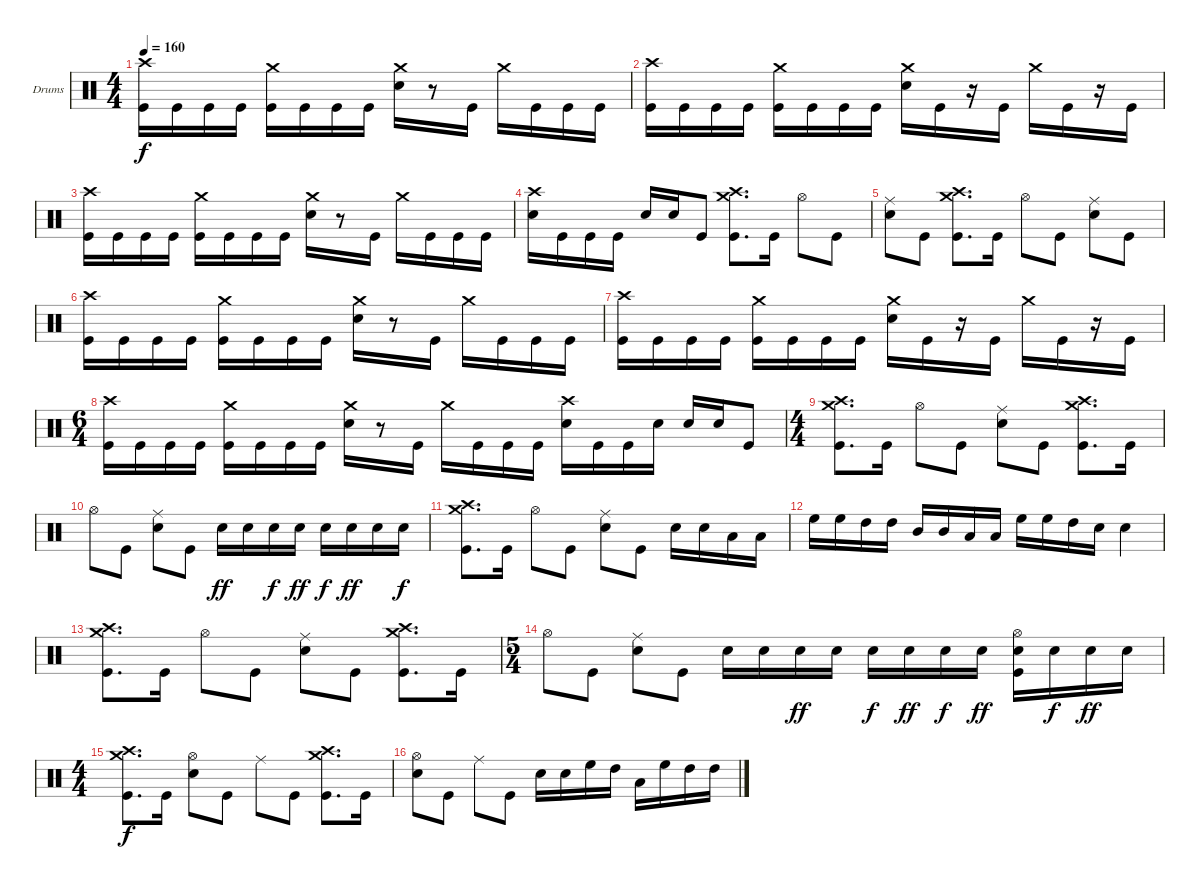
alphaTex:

\defaultSystemsLayout 4
\bracketExtendMode groupsimilarinstruments
\firstSystemTrackNameOrientation horizontal
\otherSystemsTrackNameOrientation horizontal
\track ("Moe Carlson" "Drums") {instrument percussion}
\staff {score}
\articulation defaults
\ts (4 4)
\tempo 160
\clef neutral
\ks c
("Crash high (hit)" "Kick (hit)").16{dy f} "Kick (hit)".16 "Kick (hit)".16 "Kick (hit)".16 ("Kick (hit)" "Crash medium (hit)").16 "Kick (hit)".16 "Kick (hit)".16 "Kick (hit)".16 ("Snare (hit) 2" "Crash medium (hit)").16 r.8 "Kick (hit)".16 "Crash medium (hit)".16 "Kick (hit)".16 "Kick (hit)".16 "Kick (hit)".16 |
("Kick (hit)" "Crash high (hit)").16 "Kick (hit)".16 "Kick (hit)".16 "Kick (hit)".16 ("Kick (hit)" "Crash medium (hit)").16 "Kick (hit)".16 "Kick (hit)".16 "Kick (hit)".16 ("Snare (hit) 2" "Crash medium (hit)").16 "Kick (hit)".16 r.16 "Kick (hit)".16 "Crash medium (hit)".16 "Kick (hit)".16 r.16 "Kick (hit)".16 |
("Crash high (hit)" "Kick (hit)").16 "Kick (hit)".16 "Kick (hit)".16 "Kick (hit)".16 ("Crash medium (hit)" "Kick (hit)").16 "Kick (hit)".16 "Kick (hit)".16 "Kick (hit)".16 ("Snare (hit) 2" "Crash medium (hit)").16 r.8 "Kick (hit)".16 "Crash medium (hit)".16 "Kick (hit)".16 "Kick (hit)".16 "Kick (hit)".16 |
("Snare (hit) 2" "Crash high (hit)").16 "Kick (hit)".16 "Kick (hit)".16 "Kick (hit)".16 "Snare (hit) 2".16 "Snare (hit) 2".16 "Kick (hit)".8 ("Kick (hit)" "Crash medium (hit)" "Crash high (hit)").8{d} "Kick (hit)".16 "Hi-Hat (open)".8 "Kick (hit)".8 |
("Snare (hit) 2" "Ride (middle)").8 "Kick (hit)".8 ("Kick (hit)" "Crash medium (hit)" "Crash high (hit)").8{d} "Kick (hit)".16 "Hi-Hat (open)".8 "Kick (hit)".8 ("Ride (middle)" "Snare (hit) 2").8 "Kick (hit)".8 |
("Crash high (hit)" "Kick (hit)").16 "Kick (hit)".16 "Kick (hit)".16 "Kick (hit)".16 ("Crash medium (hit)" "Kick (hit)").16 "Kick (hit)".16 "Kick (hit)".16 "Kick (hit)".16 ("Snare (hit) 2" "Crash medium (hit)").16 r.8 "Kick (hit)".16 "Crash medium (hit)".16 "Kick (hit)".16 "Kick (hit)".16 "Kick (hit)".16 |
("Kick (hit)" "Crash high (hit)").16 "Kick (hit)".16 "Kick (hit)".16 "Kick (hit)".16 ("Kick (hit)" "Crash medium (hit)").16 "Kick (hit)".16 "Kick (hit)".16 "Kick (hit)".16 ("Snare (hit) 2" "Crash medium (hit)").16 "Kick (hit)".16 r.16 "Kick (hit)".16 "Crash medium (hit)".16 "Kick (hit)".16 r.16 "Kick (hit)".16 |
\ts (6 4)
("Kick (hit)" "Crash high (hit)").16 "Kick (hit)".16 "Kick (hit)".16 "Kick (hit)".16 ("Crash medium (hit)" "Kick (hit)").16 "Kick (hit)".16 "Kick (hit)".16 "Kick (hit)".16 ("Snare (hit) 2" "Crash medium (hit)").16 r.8 "Kick (hit)".16 "Crash medium (hit)".16 "Kick (hit)".16 "Kick (hit)".16 "Kick (hit)".16 ("Snare (hit) 2" "Crash high (hit)").16 "Kick (hit)".16 "Kick (hit)".16 "Snare (hit) 2".16 "Snare (hit) 2".16 "Snare (hit) 2".16 "Kick (hit)".8 |
\ts (4 4)
("Crash medium (hit)" "Crash high (hit)" "Kick (hit)").8{d} "Kick (hit)".16 "Hi-Hat (open)".8 "Kick (hit)".8 ("Snare (hit) 2" "Ride (middle)").8 "Kick (hit)".8 ("Kick (hit)" "Crash high (hit)" "Crash medium (hit)").8{d} "Kick (hit)".16 |
"Hi-Hat (open)".8 "Kick (hit)".8 ("Snare (hit) 2" "Ride (middle)").8 "Kick (hit)".8 "Snare (hit) 2".16{dy ff} "Snare (hit) 2".16 "Snare (hit) 2".16{dy f} "Snare (hit) 2".16{dy ff} "Snare (hit) 2".16{dy f} "Snare (hit) 2".16{dy ff} "Snare (hit) 2".16 "Snare (hit) 2".16{dy f} |
("Kick (hit)" "Crash high (hit)" "Crash medium (hit)").8{d} "Kick (hit)".16 "Hi-Hat (open)".8 "Kick (hit)".8 ("Snare (hit) 2" "Ride (middle)").8 "Kick (hit)".8 "Snare (hit) 2".16 "Snare (hit) 2".16 "Low Tom (hit)".16 "Low Tom (hit)".16 |
"High Floor Tom (hit)".16 "High Floor Tom (hit)".16 "High Tom (hit)".16 "High Tom (hit)".16 "Mid Tom (hit)".16 "Mid Tom (hit)".16 "Low Tom (hit)".16 "Low Tom (hit)".16 "High Floor Tom (hit)".16 "High Floor Tom (hit)".16 "High Tom (hit)".16 "Snare (hit) 2".16 "Snare (hit) 2".4 |
("Crash medium (hit)" "Crash high (hit)" "Kick (hit)").8{d} "Kick (hit)".16 "Hi-Hat (open)".8 "Kick (hit)".8 ("Snare (hit) 2" "Ride (middle)").8 "Kick (hit)".8 ("Kick (hit)" "Crash high (hit)" "Crash medium (hit)").8{d} "Kick (hit)".16 |
\ts (5 4)
"Hi-Hat (open)".8 "Kick (hit)".8 ("Snare (hit) 2" "Ride (middle)").8 "Kick (hit)".8 "Snare (hit) 2".16 "Snare (hit) 2".16 "Snare (hit) 2".16{dy ff} "Snare (hit) 2".16 "Snare (hit) 2".16{dy f} "Snare (hit) 2".16{dy ff} "Snare (hit) 2".16{dy f} "Snare (hit) 2".16{dy ff} ("Snare (hit) 2" "Hi-Hat (open)" "Kick (hit)").16 "Snare (hit) 2".16{dy f} "Snare (hit) 2".16{dy ff} "Snare (hit) 2".16 |
\ts (4 4)
("Kick (hit)" "Crash high (hit)" "Crash medium (hit)").8{d dy f} "Kick (hit)".16 ("Hi-Hat (open)" "Snare (hit) 2").8 "Kick (hit)".8 "Ride (middle)".8 "Kick (hit)".8 ("Kick (hit)" "Crash high (hit)" "Crash medium (hit)").8{d} "Kick (hit)".16 |
("Snare (hit) 2" "Hi-Hat (open)").8 "Kick (hit)".8 "Ride (middle)".8 "Kick (hit)".8 "Snare (hit) 2".16 "Snare (hit) 2".16 "High Floor Tom (hit)".16 "High Tom (hit)".16 "Low Tom (hit)".16 "High Floor Tom (hit)".16 "High Tom (hit)".16 "High Tom (hit)".16
